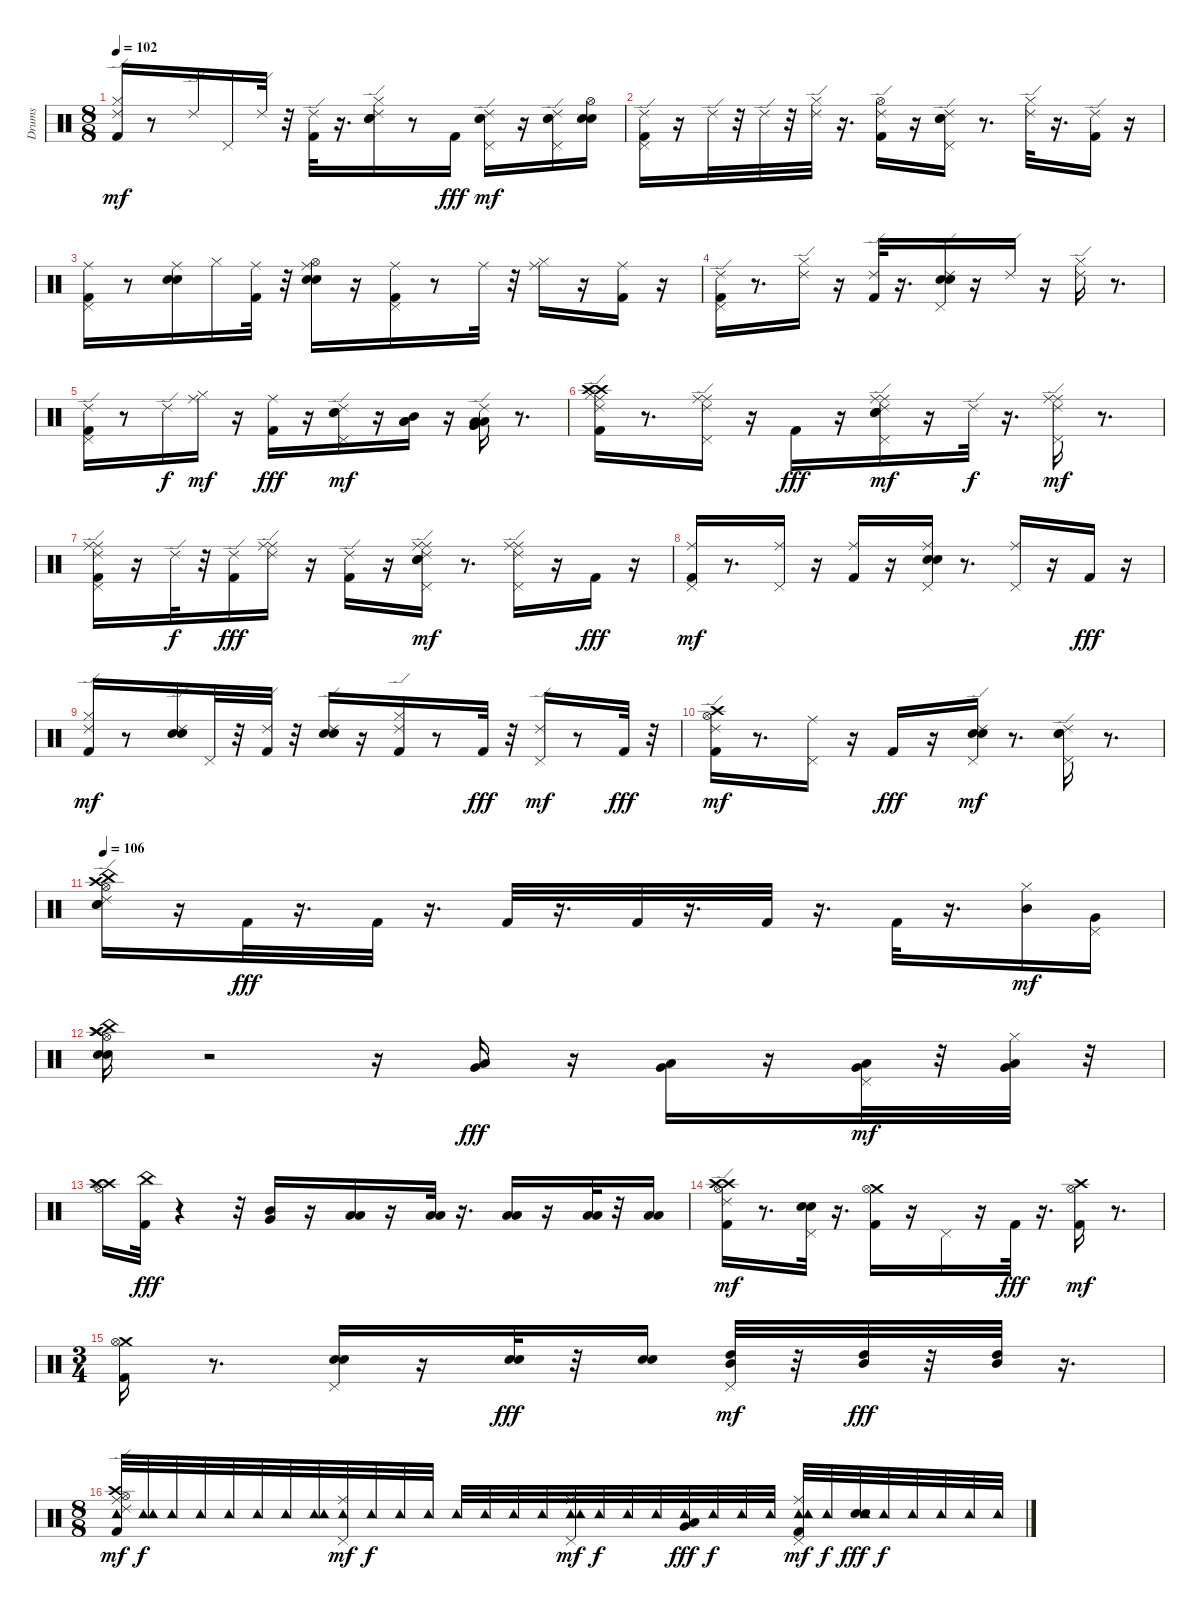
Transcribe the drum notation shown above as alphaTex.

\track ("Drums" "Drums") {instrument percussion}
\staff {score}
\articulation defaults
\ts (8 8)
\tempo 102
\clef neutral
\ks c
("Kick (hit) 2" "Hi-Hat (closed)" "Ride (edge) 2").16{dy mf} r.8 "Ride (edge) 2".16 "Pedal Hi-Hat (hit)".16 "Ride (edge) 2".32 r.32 ("Kick (hit) 2" "Ride (edge) 2").32 r.16{d} ("Electric Snare (hit)" "Snare (hit) 2" "Hi-Hat (closed)" "Ride (edge) 2").16 r.8 "Kick (hit) 2".16{dy fff} ("Electric Snare (hit)" "Snare (hit) 2" "Pedal Hi-Hat (hit)" "Ride (edge) 2").16{dy mf} r.16 ("Electric Snare (hit)" "Snare (hit) 2" "Pedal Hi-Hat (hit)" "Ride (edge) 2").16 ("Electric Snare (hit)" "Snare (hit) 2" "Hi-Hat (open)").16 |
("Kick (hit) 2" "Pedal Hi-Hat (hit)" "Ride (edge) 2").16 r.16 "Ride (edge) 2".32 r.32 "Ride (edge) 2".32 r.32 ("Hi-Hat (closed)" "Ride (edge) 2").32 r.16{d} ("Kick (hit) 2" "Hi-Hat (open)" "Ride (edge) 2").16 r.16 ("Electric Snare (hit)" "Snare (hit) 2" "Pedal Hi-Hat (hit)" "Ride (edge) 2").16 r.8{d} ("Hi-Hat (closed)" "Ride (edge) 2").32 r.16{d} ("Kick (hit) 2" "Ride (edge) 2").16 r.16 |
("Kick (hit) 2" "Pedal Hi-Hat (hit)" "Ride (middle)").16 r.8 ("Electric Snare (hit)" "Snare (hit) 2" "Ride (middle)").16 "Hi-Hat (closed)".16 ("Kick (hit) 2" "Ride (middle)").32 r.32 ("Electric Snare (hit)" "Snare (hit) 2" "Hi-Hat (open)" "Ride (middle)").16 r.16 ("Kick (hit) 2" "Pedal Hi-Hat (hit)" "Ride (middle)").16 r.8 "Ride (middle)".32 r.32 ("Hi-Hat (closed)" "Ride (middle)").16 r.16 ("Kick (hit) 2" "Ride (middle)").16 r.16 |
("Kick (hit) 2" "Pedal Hi-Hat (hit)" "Ride (edge) 2").16 r.8{d} ("Hi-Hat (closed)" "Ride (edge) 2").16 r.16 ("Kick (hit) 2" "Ride (edge) 2").32 r.16{d} ("Electric Snare (hit)" "Snare (hit) 2" "Pedal Hi-Hat (hit)" "Ride (edge) 2").16 r.16 "Ride (edge) 2".16 r.16 ("Hi-Hat (closed)" "Ride (edge) 2").16 r.8{d} |
("Kick (hit) 2" "Pedal Hi-Hat (hit)" "Ride (edge) 2").16 r.8 "Ride (edge) 2".16{dy f} ("Hi-Hat (closed)" "Ride (middle)").16{dy mf} r.16 ("Kick (hit) 2" "Ride (middle)").16{dy fff} r.16 ("Electric Snare (hit)" "Snare (hit) 2" "Pedal Hi-Hat (hit)" "Ride (edge) 2").16{dy mf} r.16 ("Mid Tom (hit)" "Low Tom (hit)" "Low Tom (hit)").16 r.16 ("Low Tom (hit)" "Very Low Tom (hit)" "Very Low Tom (hit)" "Low Tom (hit)" "Ride (edge) 2").16 r.8{d} |
("Crash high (hit)" "Kick (hit) 2" "Crash high (hit)" "Hi-Hat (closed)" "Ride (edge) 2" "Ride (middle)").16 r.8{d} ("Ride (middle)" "Pedal Hi-Hat (hit)" "Ride (edge) 2" "Ride (middle)").16 r.16 "Kick (hit) 2".16{dy fff} r.16 ("Electric Snare (hit)" "Ride (middle)" "Snare (hit) 2" "Pedal Hi-Hat (hit)" "Ride (middle)" "Ride (edge) 2").16{dy mf} r.16 "Ride (edge) 2".32{dy f} r.16{d} ("Ride (middle)" "Pedal Hi-Hat (hit)" "Ride (middle)" "Ride (edge) 2").16{dy mf} r.8{d} |
("Kick (hit) 2" "Ride (middle)" "Pedal Hi-Hat (hit)" "Ride (middle)" "Ride (edge) 2").16 r.16 "Ride (edge) 2".32{dy f} r.32 ("Kick (hit) 2" "Ride (edge) 2").16{dy fff} ("Ride (middle)" "Ride (edge) 2" "Ride (middle)").16 r.16 ("Kick (hit) 2" "Ride (edge) 2").16 r.16 ("Electric Snare (hit)" "Ride (middle)" "Snare (hit) 2" "Pedal Hi-Hat (hit)" "Ride (edge) 2" "Ride (middle)").16{dy mf} r.8{d} ("Ride (middle)" "Pedal Hi-Hat (hit)" "Ride (middle)" "Ride (edge) 2").16 r.16 "Kick (hit) 2".16{dy fff} r.16 |
("Kick (hit) 2" "Pedal Hi-Hat (hit)" "Ride (middle)").16{dy mf} r.8{d} ("Pedal Hi-Hat (hit)" "Ride (middle)").16 r.16 ("Kick (hit) 2" "Ride (middle)").16 r.16 ("Electric Snare (hit)" "Snare (hit) 2" "Pedal Hi-Hat (hit)" "Ride (middle)").16 r.8{d} ("Pedal Hi-Hat (hit)" "Ride (middle)").16 r.16 "Kick (hit) 2".16{dy fff} r.16 |
("Kick (hit) 2" "Hi-Hat (closed)" "Ride (edge) 2").16{dy mf} r.8 ("Electric Snare (hit)" "Snare (hit) 2" "Ride (edge) 2").16 "Pedal Hi-Hat (hit)".32 r.32 ("Kick (hit) 2" "Ride (edge) 2").32 r.32 ("Electric Snare (hit)" "Snare (hit) 2" "Ride (edge) 2").16 r.16 ("Kick (hit) 2" "Hi-Hat (closed)" "Ride (edge) 2").16 r.8 "Kick (hit) 2".32{dy fff} r.32 ("Pedal Hi-Hat (hit)" "Ride (edge) 2").16{dy mf} r.8 "Kick (hit) 2".32{dy fff} r.32 |
("Kick (hit) 2" "Hi-Hat (open)" "Ride (edge) 2" "Crash high (hit)").16{dy mf} r.8{d} ("Pedal Hi-Hat (hit)" "Ride (middle)").16 r.16 "Kick (hit) 2".16{dy fff} r.16 ("Electric Snare (hit)" "Snare (hit) 2" "Pedal Hi-Hat (hit)" "Ride (edge) 2").16{dy mf} r.8{d} ("Electric Snare (hit)" "Snare (hit) 2" "Pedal Hi-Hat (hit)" "Ride (edge) 2").16 r.8{d} |
\tempo 106
("Electric Snare (hit)" "Crash high (hit)" "China (hit)" "Snare (hit) 2" "Hi-Hat (open)" "Ride (edge) 2").16 r.16 "Kick (hit) 2".32{dy fff} r.16{d} "Kick (hit) 2".32 r.16{d} "Kick (hit) 2".32 r.16{d} "Kick (hit) 2".32 r.16{d} "Kick (hit) 2".32 r.16{d} "Kick (hit) 2".32 r.16{d} ("Mid Tom (hit)" "Hi-Hat (closed)").16{dy mf} ("Very Low Tom (hit)" "Pedal Hi-Hat (hit)").16 |
("Electric Snare (hit)" "Crash high (hit)" "China (hit)" "Snare (hit) 2" "Hi-Hat (open)" "Crash high (hit)").16 r.2 r.16 ("Low Tom (hit)" "Very Low Tom (hit)").16{dy fff} r.16 ("Low Tom (hit)" "Very Low Tom (hit)").16 r.16 ("Low Tom (hit)" "Very Low Tom (hit)" "Pedal Hi-Hat (hit)").32{dy mf} r.32 ("Low Tom (hit)" "Very Low Tom (hit)" "Hi-Hat (closed)").32 r.32 |
("Crash high (hit)" "Hi-Hat (open)" "Crash high (hit)" "Splash (hit)").16 ("Kick (hit) 2" "China (hit)").32{dy fff} r.4 r.32 ("Mid Tom (hit)" "Very Low Tom (hit)").16 r.16 ("Low Tom (hit)" "Low Floor Tom (hit)").16 r.16 ("Low Tom (hit)" "Low Floor Tom (hit)").32 r.16{d} ("Low Floor Tom (hit)" "Low Tom (hit)").16 r.16 ("Low Floor Tom (hit)" "Low Tom (hit)").32 r.32 ("Low Tom (hit)" "Low Floor Tom (hit)").16 |
("Crash high (hit)" "Kick (hit) 2" "Hi-Hat (open)" "Ride (edge) 2" "Crash high (hit)").16{dy mf} r.8{d} ("Electric Snare (hit)" "Snare (hit) 2" "Pedal Hi-Hat (hit)").32 r.16{d} ("Crash medium (hit)" "Kick (hit) 2" "Hi-Hat (open)").16 r.16 "Pedal Hi-Hat (hit)".16 r.16 "Kick (hit) 2".32{dy fff} r.16{d} ("Crash high (hit)" "Kick (hit) 2" "Hi-Hat (open)").16{dy mf} r.8{d} |
\ts (3 4)
("Kick (hit) 2" "Crash medium (hit)" "Hi-Hat (open)").16 r.8{d} ("Electric Snare (hit)" "Snare (hit) 2" "Pedal Hi-Hat (hit)").16 r.16 ("Electric Snare (hit)" "Snare (hit) 2").32{dy fff} r.32 ("Electric Snare (hit)" "Snare (hit) 2").16 ("Mid Tom (hit)" "High Tom (hit)" "Pedal Hi-Hat (hit)").32{dy mf} r.32 ("Mid Tom (hit)" "High Tom (hit)").32{dy fff} r.32 ("Mid Tom (hit)" "High Tom (hit)").32 r.16{d} |
\ts (8 8)
("Crash high (hit)" "Kick (hit) 2" "Hi-Hat (open)" "Tambourine (hit)" "Ride (edge) 2" "Ride (middle)").32{dy mf} ("Tambourine (hit)" "Tambourine (hit)").32{dy f} "Tambourine (hit)".32 "Tambourine (hit)".32 "Tambourine (hit)".32 "Tambourine (hit)".32 "Tambourine (hit)".32 ("Tambourine (hit)" "Tambourine (hit)").32 ("Pedal Hi-Hat (hit)" "Tambourine (hit)" "Ride (middle)").32{dy mf} "Tambourine (hit)".32{dy f} "Tambourine (hit)".32 "Tambourine (hit)".32 "Tambourine (hit)".32 "Tambourine (hit)".32 "Tambourine (hit)".32 "Tambourine (hit)".32 ("Pedal Hi-Hat (hit)" "Tambourine (hit)" "Tambourine (hit)" "Ride (middle)").32{dy mf} "Tambourine (hit)".32{dy f} "Tambourine (hit)".32 "Tambourine (hit)".32 ("Low Tom (hit)" "Very Low Tom (hit)" "Tambourine (hit)").32{dy fff} "Tambourine (hit)".32{dy f} "Tambourine (hit)".32 "Tambourine (hit)".32 ("Kick (hit) 2" "Pedal Hi-Hat (hit)" "Tambourine (hit)" "Tambourine (hit)" "Ride (middle)").32{dy mf} "Tambourine (hit)".32{dy f} ("Electric Snare (hit)" "Snare (hit) 2" "Tambourine (hit)").32{dy fff} "Tambourine (hit)".32{dy f} "Tambourine (hit)".32 "Tambourine (hit)".32 "Tambourine (hit)".32 "Tambourine (hit)".32
